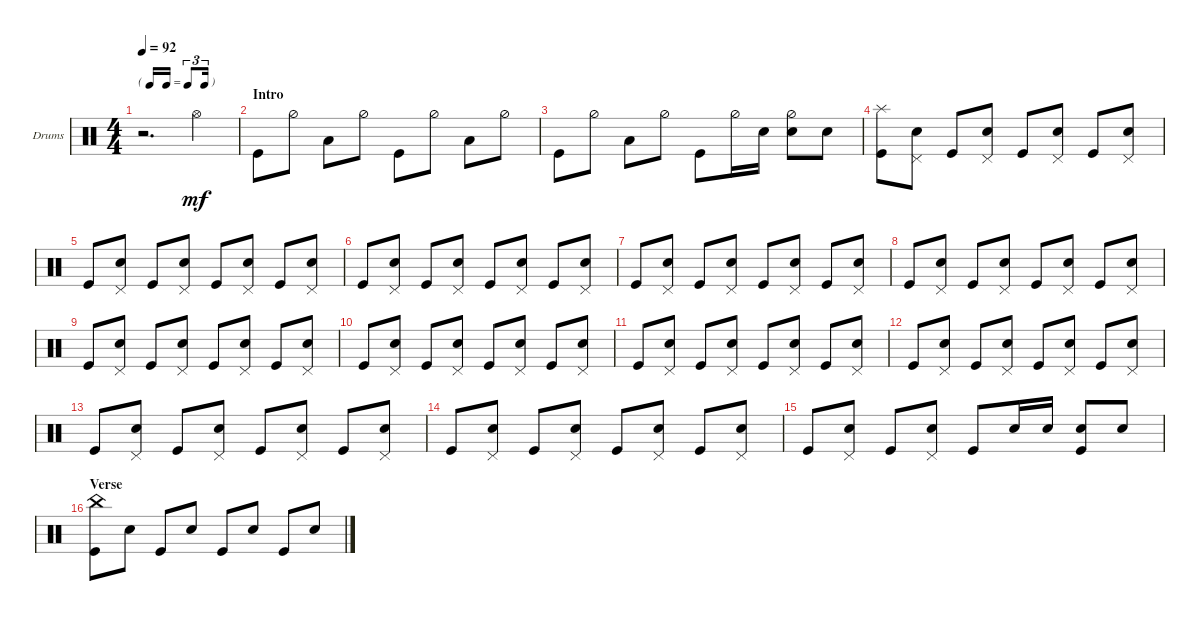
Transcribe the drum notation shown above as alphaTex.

\defaultSystemsLayout 4
\bracketExtendMode nobrackets
\firstSystemTrackNameOrientation horizontal
\otherSystemsTrackNameOrientation horizontal
\track ("Drumkit" "Drums") {instrument percussion}
\staff {score}
\articulation defaults
\ts (4 4)
\tf triplet16th
\tempo 92
\clef neutral
\ks c
r.2{d dy mf} "Hi-Hat (open)".4 |
\section ("" "Intro")
"Kick (hit)".8 "Hi-Hat (half)".8 "Low Tom (hit)".8 "Hi-Hat (half)".8 "Kick (hit)".8 "Hi-Hat (half)".8 "Low Tom (hit)".8 "Hi-Hat (half)".8 |
"Kick (hit)".8 "Hi-Hat (half)".8 "Low Tom (hit)".8 "Hi-Hat (half)".8 "Kick (hit)".8 "Hi-Hat (half)".16 "Snare (hit) 2".16 ("Hi-Hat (half)" "Snare (hit) 2").8 "Snare (hit) 2".8 |
("Splash (hit)" "Kick (hit)").8 ("Snare (hit) 2" "Pedal Hi-Hat (hit)").8 "Kick (hit)".8 ("Snare (hit) 2" "Pedal Hi-Hat (hit)").8 "Kick (hit)".8 ("Snare (hit) 2" "Pedal Hi-Hat (hit)").8 "Kick (hit)".8 ("Snare (hit) 2" "Pedal Hi-Hat (hit)").8 |
"Kick (hit)".8 ("Snare (hit) 2" "Pedal Hi-Hat (hit)").8 "Kick (hit)".8 ("Snare (hit) 2" "Pedal Hi-Hat (hit)").8 "Kick (hit)".8 ("Snare (hit) 2" "Pedal Hi-Hat (hit)").8 "Kick (hit)".8 ("Snare (hit) 2" "Pedal Hi-Hat (hit)").8 |
"Kick (hit)".8 ("Snare (hit) 2" "Pedal Hi-Hat (hit)").8 "Kick (hit)".8 ("Snare (hit) 2" "Pedal Hi-Hat (hit)").8 "Kick (hit)".8 ("Snare (hit) 2" "Pedal Hi-Hat (hit)").8 "Kick (hit)".8 ("Snare (hit) 2" "Pedal Hi-Hat (hit)").8 |
"Kick (hit)".8 ("Snare (hit) 2" "Pedal Hi-Hat (hit)").8 "Kick (hit)".8 ("Snare (hit) 2" "Pedal Hi-Hat (hit)").8 "Kick (hit)".8 ("Snare (hit) 2" "Pedal Hi-Hat (hit)").8 "Kick (hit)".8 ("Snare (hit) 2" "Pedal Hi-Hat (hit)").8 |
"Kick (hit)".8 ("Snare (hit) 2" "Pedal Hi-Hat (hit)").8 "Kick (hit)".8 ("Snare (hit) 2" "Pedal Hi-Hat (hit)").8 "Kick (hit)".8 ("Snare (hit) 2" "Pedal Hi-Hat (hit)").8 "Kick (hit)".8 ("Snare (hit) 2" "Pedal Hi-Hat (hit)").8 |
"Kick (hit)".8 ("Snare (hit) 2" "Pedal Hi-Hat (hit)").8 "Kick (hit)".8 ("Snare (hit) 2" "Pedal Hi-Hat (hit)").8 "Kick (hit)".8 ("Snare (hit) 2" "Pedal Hi-Hat (hit)").8 "Kick (hit)".8 ("Snare (hit) 2" "Pedal Hi-Hat (hit)").8 |
"Kick (hit)".8 ("Snare (hit) 2" "Pedal Hi-Hat (hit)").8 "Kick (hit)".8 ("Snare (hit) 2" "Pedal Hi-Hat (hit)").8 "Kick (hit)".8 ("Snare (hit) 2" "Pedal Hi-Hat (hit)").8 "Kick (hit)".8 ("Snare (hit) 2" "Pedal Hi-Hat (hit)").8 |
"Kick (hit)".8 ("Snare (hit) 2" "Pedal Hi-Hat (hit)").8 "Kick (hit)".8 ("Snare (hit) 2" "Pedal Hi-Hat (hit)").8 "Kick (hit)".8 ("Snare (hit) 2" "Pedal Hi-Hat (hit)").8 "Kick (hit)".8 ("Snare (hit) 2" "Pedal Hi-Hat (hit)").8 |
"Kick (hit)".8 ("Snare (hit) 2" "Pedal Hi-Hat (hit)").8 "Kick (hit)".8 ("Snare (hit) 2" "Pedal Hi-Hat (hit)").8 "Kick (hit)".8 ("Snare (hit) 2" "Pedal Hi-Hat (hit)").8 "Kick (hit)".8 ("Snare (hit) 2" "Pedal Hi-Hat (hit)").8 |
"Kick (hit)".8 ("Snare (hit) 2" "Pedal Hi-Hat (hit)").8 "Kick (hit)".8 ("Snare (hit) 2" "Pedal Hi-Hat (hit)").8 "Kick (hit)".8 ("Snare (hit) 2" "Pedal Hi-Hat (hit)").8 "Kick (hit)".8 ("Snare (hit) 2" "Pedal Hi-Hat (hit)").8 |
"Kick (hit)".8 ("Snare (hit) 2" "Pedal Hi-Hat (hit)").8 "Kick (hit)".8 ("Snare (hit) 2" "Pedal Hi-Hat (hit)").8 "Kick (hit)".8 ("Snare (hit) 2" "Pedal Hi-Hat (hit)").8 "Kick (hit)".8 ("Snare (hit) 2" "Pedal Hi-Hat (hit)").8 |
"Kick (hit)".8 ("Snare (hit) 2" "Pedal Hi-Hat (hit)").8 "Kick (hit)".8 ("Snare (hit) 2" "Pedal Hi-Hat (hit)").8 "Kick (hit)".8 "Snare (hit) 2".16 "Snare (hit) 2".16 ("Kick (hit)" "Snare (hit) 2").8 "Snare (hit) 2".8 |
\section ("" "Verse")
("China (hit)" "Kick (hit)").8 "Snare (hit) 2".8 "Kick (hit)".8 "Snare (hit) 2".8 "Kick (hit)".8 "Snare (hit) 2".8 "Kick (hit)".8 "Snare (hit) 2".8
